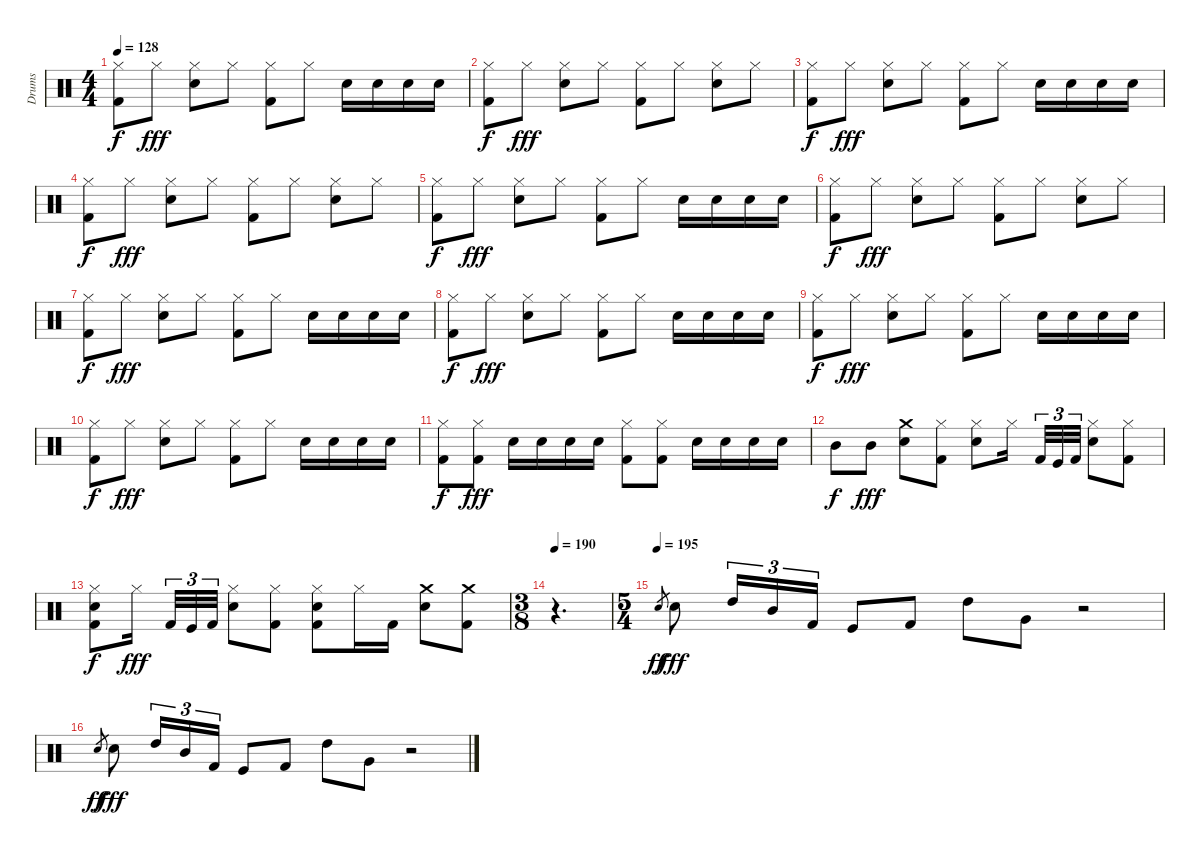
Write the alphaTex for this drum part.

\track ("Drums" "Drums") {instrument percussion}
\staff {score}
\articulation defaults
\ts (4 4)
\tempo 128
\clef neutral
\ks c
("Hi-Hat (closed)" "Kick (hit) 2").8{dy f} "Hi-Hat (closed)".8{dy fff} ("Snare (hit) 2" "Hi-Hat (closed)").8 "Hi-Hat (closed)".8 ("Hi-Hat (closed)" "Kick (hit) 2").8 "Hi-Hat (closed)".8 "Snare (hit) 2".16 "Snare (hit) 2".16 "Snare (hit) 2".16 "Snare (hit) 2".16 |
("Hi-Hat (closed)" "Kick (hit) 2").8{dy f} "Hi-Hat (closed)".8{dy fff} ("Snare (hit) 2" "Hi-Hat (closed)").8 "Hi-Hat (closed)".8 ("Hi-Hat (closed)" "Kick (hit) 2").8 "Hi-Hat (closed)".8 ("Snare (hit) 2" "Hi-Hat (closed)").8 "Hi-Hat (closed)".8 |
("Hi-Hat (closed)" "Kick (hit) 2").8{dy f} "Hi-Hat (closed)".8{dy fff} ("Snare (hit) 2" "Hi-Hat (closed)").8 "Hi-Hat (closed)".8 ("Hi-Hat (closed)" "Kick (hit) 2").8 "Hi-Hat (closed)".8 "Snare (hit) 2".16 "Snare (hit) 2".16 "Snare (hit) 2".16 "Snare (hit) 2".16 |
("Hi-Hat (closed)" "Kick (hit) 2").8{dy f} "Hi-Hat (closed)".8{dy fff} ("Snare (hit) 2" "Hi-Hat (closed)").8 "Hi-Hat (closed)".8 ("Hi-Hat (closed)" "Kick (hit) 2").8 "Hi-Hat (closed)".8 ("Snare (hit) 2" "Hi-Hat (closed)").8 "Hi-Hat (closed)".8 |
("Hi-Hat (closed)" "Kick (hit) 2").8{dy f} "Hi-Hat (closed)".8{dy fff} ("Snare (hit) 2" "Hi-Hat (closed)").8 "Hi-Hat (closed)".8 ("Hi-Hat (closed)" "Kick (hit) 2").8 "Hi-Hat (closed)".8 "Snare (hit) 2".16 "Snare (hit) 2".16 "Snare (hit) 2".16 "Snare (hit) 2".16 |
("Hi-Hat (closed)" "Kick (hit) 2").8{dy f} "Hi-Hat (closed)".8{dy fff} ("Snare (hit) 2" "Hi-Hat (closed)").8 "Hi-Hat (closed)".8 ("Hi-Hat (closed)" "Kick (hit) 2").8 "Hi-Hat (closed)".8 ("Snare (hit) 2" "Hi-Hat (closed)").8 "Hi-Hat (closed)".8 |
("Hi-Hat (closed)" "Kick (hit) 2").8{dy f} "Hi-Hat (closed)".8{dy fff} ("Snare (hit) 2" "Hi-Hat (closed)").8 "Hi-Hat (closed)".8 ("Hi-Hat (closed)" "Kick (hit) 2").8 "Hi-Hat (closed)".8 "Snare (hit) 2".16 "Snare (hit) 2".16 "Snare (hit) 2".16 "Snare (hit) 2".16 |
("Hi-Hat (closed)" "Kick (hit) 2").8{dy f} "Hi-Hat (closed)".8{dy fff} ("Snare (hit) 2" "Hi-Hat (closed)").8 "Hi-Hat (closed)".8 ("Hi-Hat (closed)" "Kick (hit) 2").8 "Hi-Hat (closed)".8 "Snare (hit) 2".16 "Snare (hit) 2".16 "Snare (hit) 2".16 "Snare (hit) 2".16 |
("Hi-Hat (closed)" "Kick (hit) 2").8{dy f} "Hi-Hat (closed)".8{dy fff} ("Snare (hit) 2" "Hi-Hat (closed)").8 "Hi-Hat (closed)".8 ("Hi-Hat (closed)" "Kick (hit) 2").8 "Hi-Hat (closed)".8 "Snare (hit) 2".16 "Snare (hit) 2".16 "Snare (hit) 2".16 "Snare (hit) 2".16 |
("Hi-Hat (closed)" "Kick (hit) 2").8{dy f} "Hi-Hat (closed)".8{dy fff} ("Snare (hit) 2" "Hi-Hat (closed)").8 "Hi-Hat (closed)".8 ("Hi-Hat (closed)" "Kick (hit) 2").8 "Hi-Hat (closed)".8 "Snare (hit) 2".16 "Snare (hit) 2".16 "Snare (hit) 2".16 "Snare (hit) 2".16 |
("Hi-Hat (closed)" "Kick (hit) 2").8{dy f} ("Kick (hit) 2" "Hi-Hat (closed)").8{dy fff} "Snare (hit) 2".16 "Snare (hit) 2".16 "Snare (hit) 2".16 "Snare (hit) 2".16 ("Kick (hit) 2" "Hi-Hat (closed)").8 ("Kick (hit) 2" "Hi-Hat (closed)").8 "Snare (hit) 2".16 "Snare (hit) 2".16 "Snare (hit) 2".16 "Snare (hit) 2".16 |
"Mid Tom (hit)".8{dy f} "Mid Tom (hit)".8{dy fff} ("Crash medium (hit)" "Snare (hit) 2").8 ("Kick (hit) 2" "Hi-Hat (closed)").8 ("Snare (hit) 2" "Hi-Hat (closed)").8 "Hi-Hat (closed)".16 "Kick (hit) 2".32{tu (3 2)} "Kick (hit)".32{tu (3 2)} "Kick (hit) 2".32{tu (3 2)} ("Snare (hit) 2" "Hi-Hat (closed)").8 ("Kick (hit) 2" "Hi-Hat (closed)").8 |
("Hi-Hat (closed)" "Snare (hit) 2" "Kick (hit) 2").8{dy f} "Hi-Hat (closed)".16{dy fff} "Kick (hit) 2".32{tu (3 2)} "Kick (hit)".32{tu (3 2)} "Kick (hit) 2".32{tu (3 2)} ("Snare (hit) 2" "Hi-Hat (closed)").8 ("Hi-Hat (closed)" "Kick (hit) 2").8 ("Snare (hit) 2" "Hi-Hat (closed)" "Kick (hit) 2").8 "Hi-Hat (closed)".16 "Kick (hit) 2".16 ("Crash medium (hit)" "Snare (hit) 2").8 ("Crash medium (hit)" "Kick (hit) 2").8 |
\ts (3 8)
\tempo 190
r.4{d} |
\ts (5 4)
\tempo (195)
"Snare (hit)".8{gr dy ff} "Snare (hit) 2".8{dy fff} "High Tom (hit)".16{tu (3 2)} "Mid Tom (hit)".16{tu (3 2)} "Kick (hit) 2".16{tu (3 2)} "Kick (hit)".8 "Kick (hit) 2".8 "High Tom (hit)".8 "Very Low Tom (hit)".8 r.2 |
"Snare (hit)".8{gr dy ff} "Snare (hit) 2".8{dy fff} "High Tom (hit)".16{tu (3 2)} "Mid Tom (hit)".16{tu (3 2)} "Kick (hit) 2".16{tu (3 2)} "Kick (hit)".8 "Kick (hit) 2".8 "High Tom (hit)".8 "Very Low Tom (hit)".8 r.2
